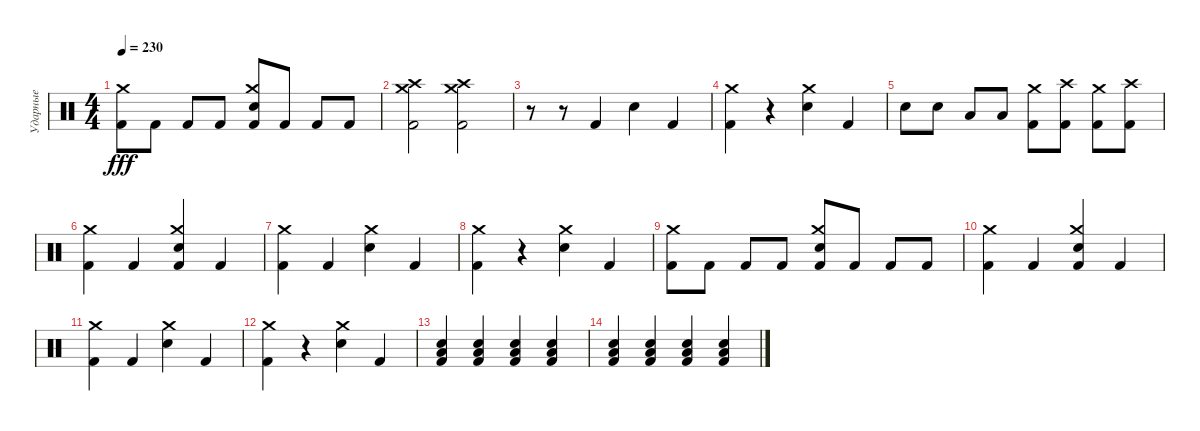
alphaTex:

\track ("Ударные" "Ударные") {instrument percussion}
\staff {score}
\articulation defaults
\ts (4 4)
\tempo 230
\clef neutral
\ks c
("Kick (hit) 2" "Crash medium (hit)").8{dy fff} "Kick (hit) 2".8 "Kick (hit) 2".8 "Kick (hit) 2".8 ("Kick (hit) 2" "Electric Snare (hit)" "Crash medium (hit)").8 "Kick (hit) 2".8 "Kick (hit) 2".8 "Kick (hit) 2".8 |
("Kick (hit) 2" "Crash high (hit)" "Crash medium (hit)").2 ("Kick (hit) 2" "Crash high (hit)" "Crash medium (hit)").2 |
r.8 r.8 "Kick (hit) 2".4 "Electric Snare (hit)".4 "Kick (hit) 2".4 |
("Kick (hit) 2" "Crash medium (hit)").4 r.4 ("Electric Snare (hit)" "Crash medium (hit)").4 "Kick (hit) 2".4 |
"Electric Snare (hit)".8 "Electric Snare (hit)".8 "Low Tom (hit)".8 "Low Tom (hit)".8 ("Kick (hit) 2" "Crash medium (hit)").8 ("Kick (hit) 2" "Crash high (hit)").8 ("Kick (hit) 2" "Crash medium (hit)").8 ("Kick (hit) 2" "Crash high (hit)").8 |
("Kick (hit) 2" "Crash medium (hit)").4 "Kick (hit) 2".4 ("Kick (hit) 2" "Electric Snare (hit)" "Crash medium (hit)").4 "Kick (hit) 2".4 |
("Kick (hit) 2" "Crash medium (hit)").4 "Kick (hit) 2".4 ("Electric Snare (hit)" "Crash medium (hit)").4 "Kick (hit) 2".4 |
("Kick (hit) 2" "Crash medium (hit)").4 r.4 ("Electric Snare (hit)" "Crash medium (hit)").4 "Kick (hit) 2".4 |
("Kick (hit) 2" "Crash medium (hit)").8 "Kick (hit) 2".8 "Kick (hit) 2".8 "Kick (hit) 2".8 ("Kick (hit) 2" "Electric Snare (hit)" "Crash medium (hit)").8 "Kick (hit) 2".8 "Kick (hit) 2".8 "Kick (hit) 2".8 |
("Kick (hit) 2" "Crash medium (hit)").4 "Kick (hit) 2".4 ("Kick (hit) 2" "Electric Snare (hit)" "Crash medium (hit)").4 "Kick (hit) 2".4 |
("Kick (hit) 2" "Crash medium (hit)").4 "Kick (hit) 2".4 ("Electric Snare (hit)" "Crash medium (hit)").4 "Kick (hit) 2".4 |
("Kick (hit) 2" "Crash medium (hit)").4 r.4 ("Electric Snare (hit)" "Crash medium (hit)").4 "Kick (hit) 2".4 |
("Kick (hit) 2" "Electric Snare (hit)" "Low Tom (hit)").4 ("Kick (hit) 2" "Electric Snare (hit)" "Low Tom (hit)").4 ("Kick (hit) 2" "Electric Snare (hit)" "Low Tom (hit)").4 ("Kick (hit) 2" "Electric Snare (hit)" "Low Tom (hit)").4 |
("Kick (hit) 2" "Electric Snare (hit)" "Low Tom (hit)").4 ("Kick (hit) 2" "Electric Snare (hit)" "Low Tom (hit)").4 ("Kick (hit) 2" "Electric Snare (hit)" "Low Tom (hit)").4 ("Kick (hit) 2" "Electric Snare (hit)" "Low Tom (hit)").4
